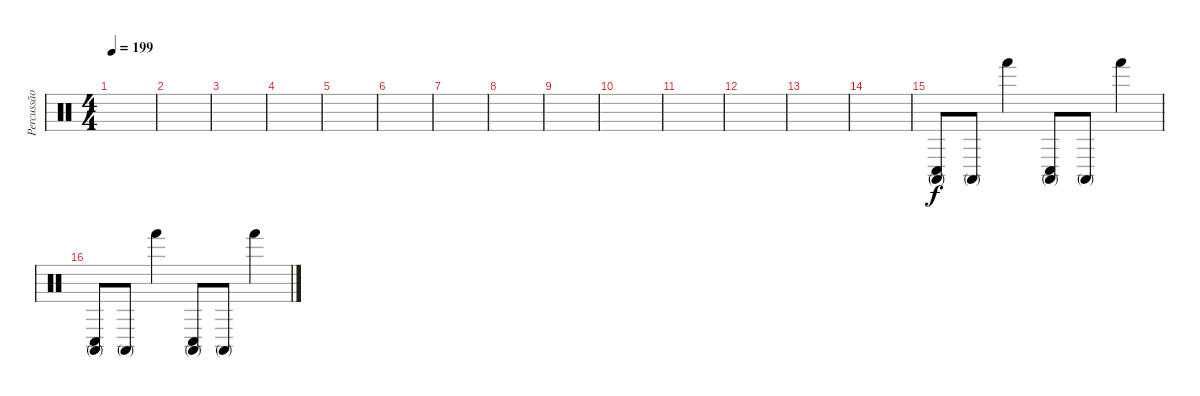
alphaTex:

\track ("Percussão" "Percussão") {instrument percussion}
\staff {score}
\articulation defaults
\ts (4 4)
\tempo 199
\clef neutral
\ks c
|
|
|
|
|
|
|
|
|
|
|
|
|
|
("Conga high (mute)" "Conga low (hit)").8 "Conga high (mute)".8 "Hand (hit)".4 ("Conga high (mute)" "Conga low (hit)").8 "Conga high (mute)".8 "Hand (hit)".4 |
("Conga high (mute)" "Conga low (hit)").8 "Conga high (mute)".8 "Hand (hit)".4 ("Conga high (mute)" "Conga low (hit)").8 "Conga high (mute)".8 "Hand (hit)".4
